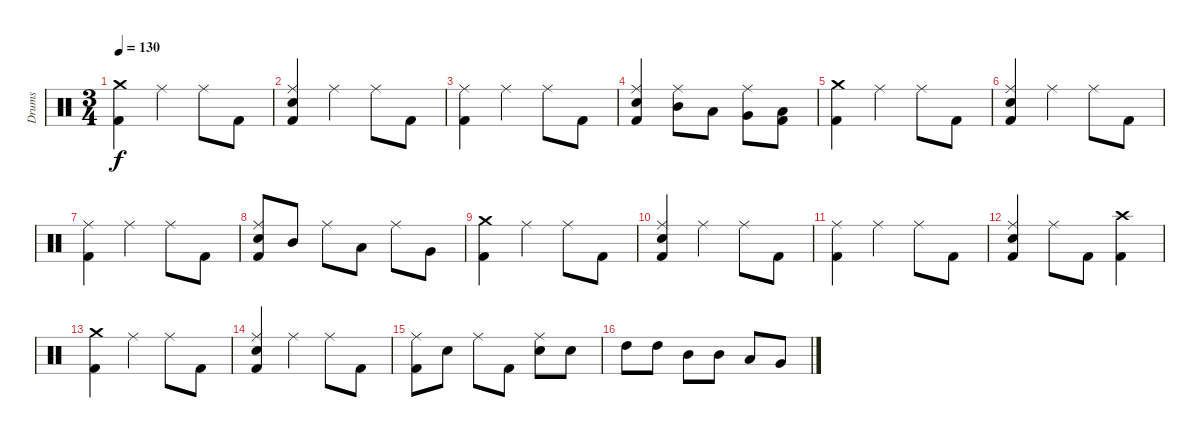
\track ("Drums" "Drums") {instrument percussion}
\staff {score}
\articulation defaults
\ts (3 4)
\tempo 130
\clef neutral
\ks c
("Crash medium (hit)" "Kick (hit) 2").4{dy f} "Ride (middle)".4 "Ride (middle)".8 "Kick (hit) 2".8 |
("Ride (middle)" "Electric Snare (hit)" "Kick (hit) 2").4 "Ride (middle)".4 "Ride (middle)".8 "Kick (hit) 2".8 |
("Ride (middle)" "Kick (hit) 2").4 "Ride (middle)".4 "Ride (middle)".8 "Kick (hit) 2".8 |
("Ride (middle)" "Electric Snare (hit)" "Kick (hit) 2").4 ("Ride (middle)" "Mid Tom (hit)").8 "Low Tom (hit)".8 ("Ride (middle)" "Very Low Tom (hit)").8 ("Low Floor Tom (hit)" "Kick (hit) 2").8 |
("Crash medium (hit)" "Kick (hit) 2").4 "Ride (middle)".4 "Ride (middle)".8 "Kick (hit) 2".8 |
("Ride (middle)" "Electric Snare (hit)" "Kick (hit) 2").4 "Ride (middle)".4 "Ride (middle)".8 "Kick (hit) 2".8 |
("Ride (middle)" "Kick (hit) 2").4 "Ride (middle)".4 "Ride (middle)".8 "Kick (hit) 2".8 |
("Ride (middle)" "Electric Snare (hit)" "Kick (hit) 2").8 "Mid Tom (hit)".8 "Ride (middle)".8 "Low Tom (hit)".8 "Ride (middle)".8 "Very Low Tom (hit)".8 |
("Crash medium (hit)" "Kick (hit) 2").4 "Ride (middle)".4 "Ride (middle)".8 "Kick (hit) 2".8 |
("Ride (middle)" "Electric Snare (hit)" "Kick (hit) 2").4 "Ride (middle)".4 "Ride (middle)".8 "Kick (hit) 2".8 |
("Ride (middle)" "Kick (hit) 2").4 "Ride (middle)".4 "Ride (middle)".8 "Kick (hit) 2".8 |
("Ride (middle)" "Electric Snare (hit)" "Kick (hit) 2").4 "Ride (middle)".8 "Kick (hit) 2".8 ("Crash high (hit)" "Kick (hit) 2").4 |
("Crash medium (hit)" "Kick (hit) 2").4 "Ride (middle)".4 "Ride (middle)".8 "Kick (hit) 2".8 |
("Ride (middle)" "Electric Snare (hit)" "Kick (hit) 2").4 "Ride (middle)".4 "Ride (middle)".8 "Kick (hit) 2".8 |
("Ride (middle)" "Kick (hit) 2").8 "Electric Snare (hit)".8 "Ride (middle)".8 "Kick (hit) 2".8 ("Ride (middle)" "Electric Snare (hit)").8 "Electric Snare (hit)".8 |
"High Tom (hit)".8 "High Tom (hit)".8 "Mid Tom (hit)".8 "Mid Tom (hit)".8 "Low Tom (hit)".8 "Very Low Tom (hit)".8
